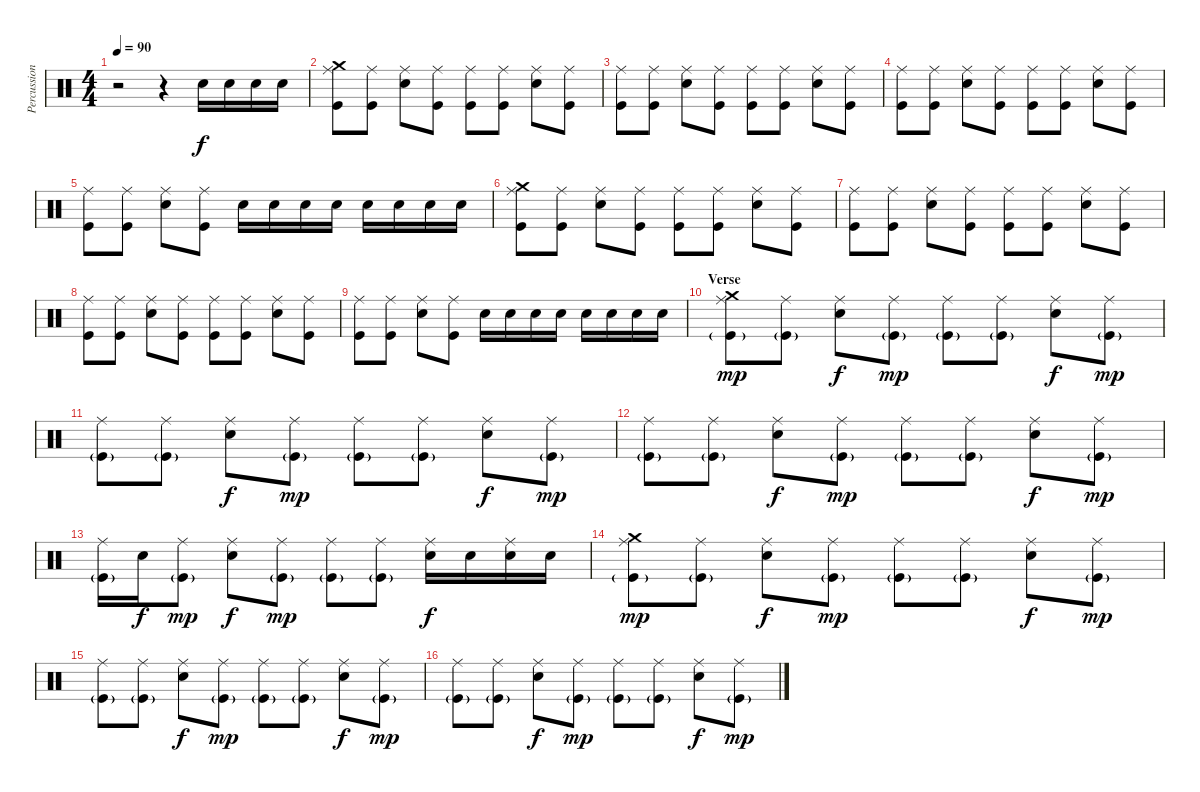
\track ("Percussions" "Percussion") {instrument percussion}
\staff {score}
\articulation defaults
\ts (4 4)
\tempo 90
\clef neutral
\ks c
r.2{dy f} r.4 "Snare (hit) 2".16 "Snare (hit) 2".16 "Snare (hit) 2".16 "Snare (hit) 2".16 |
("Ride (middle)" "Crash medium (hit)" "Kick (hit)").8 ("Ride (middle)" "Kick (hit)").8 ("Ride (middle)" "Snare (hit) 2").8 ("Ride (middle)" "Kick (hit)").8 ("Ride (middle)" "Kick (hit)").8 ("Ride (middle)" "Kick (hit)").8 ("Ride (middle)" "Snare (hit) 2").8 ("Ride (middle)" "Kick (hit)").8 |
("Ride (middle)" "Kick (hit)").8 ("Ride (middle)" "Kick (hit)").8 ("Ride (middle)" "Snare (hit) 2").8 ("Ride (middle)" "Kick (hit)").8 ("Ride (middle)" "Kick (hit)").8 ("Ride (middle)" "Kick (hit)").8 ("Ride (middle)" "Snare (hit) 2").8 ("Ride (middle)" "Kick (hit)").8 |
("Ride (middle)" "Kick (hit)").8 ("Ride (middle)" "Kick (hit)").8 ("Ride (middle)" "Snare (hit) 2").8 ("Ride (middle)" "Kick (hit)").8 ("Ride (middle)" "Kick (hit)").8 ("Ride (middle)" "Kick (hit)").8 ("Ride (middle)" "Snare (hit) 2").8 ("Ride (middle)" "Kick (hit)").8 |
("Ride (middle)" "Kick (hit)").8 ("Ride (middle)" "Kick (hit)").8 ("Ride (middle)" "Snare (hit) 2").8 ("Ride (middle)" "Kick (hit)").8 "Snare (hit) 2".16 "Snare (hit) 2".16 "Snare (hit) 2".16 "Snare (hit) 2".16 "Snare (hit) 2".16 "Snare (hit) 2".16 "Snare (hit) 2".16 "Snare (hit) 2".16 |
("Ride (middle)" "Crash medium (hit)" "Kick (hit)").8 ("Ride (middle)" "Kick (hit)").8 ("Ride (middle)" "Snare (hit) 2").8 ("Ride (middle)" "Kick (hit)").8 ("Ride (middle)" "Kick (hit)").8 ("Ride (middle)" "Kick (hit)").8 ("Ride (middle)" "Snare (hit) 2").8 ("Ride (middle)" "Kick (hit)").8 |
("Ride (middle)" "Kick (hit)").8 ("Ride (middle)" "Kick (hit)").8 ("Ride (middle)" "Snare (hit) 2").8 ("Ride (middle)" "Kick (hit)").8 ("Ride (middle)" "Kick (hit)").8 ("Ride (middle)" "Kick (hit)").8 ("Ride (middle)" "Snare (hit) 2").8 ("Ride (middle)" "Kick (hit)").8 |
("Ride (middle)" "Kick (hit)").8 ("Ride (middle)" "Kick (hit)").8 ("Ride (middle)" "Snare (hit) 2").8 ("Ride (middle)" "Kick (hit)").8 ("Ride (middle)" "Kick (hit)").8 ("Ride (middle)" "Kick (hit)").8 ("Ride (middle)" "Snare (hit) 2").8 ("Ride (middle)" "Kick (hit)").8 |
("Ride (middle)" "Kick (hit)").8 ("Ride (middle)" "Kick (hit)").8 ("Ride (middle)" "Snare (hit) 2").8 ("Ride (middle)" "Kick (hit)").8 "Snare (hit) 2".16 "Snare (hit) 2".16 "Snare (hit) 2".16 "Snare (hit) 2".16 "Snare (hit) 2".16 "Snare (hit) 2".16 "Snare (hit) 2".16 "Snare (hit) 2".16 |
\section ("" "Verse")
("Ride (middle)" "Crash medium (hit)" "Kick (hit)"{g}).8{dy mp} ("Ride (middle)" "Kick (hit)"{g}).8 ("Ride (middle)" "Snare (hit) 2").8{dy f} ("Ride (middle)" "Kick (hit)"{g}).8{dy mp} ("Ride (middle)" "Kick (hit)"{g}).8 ("Ride (middle)" "Kick (hit)"{g}).8 ("Ride (middle)" "Snare (hit) 2").8{dy f} ("Ride (middle)" "Kick (hit)"{g}).8{dy mp} |
("Ride (middle)" "Kick (hit)"{g}).8 ("Ride (middle)" "Kick (hit)"{g}).8 ("Ride (middle)" "Snare (hit) 2").8{dy f} ("Ride (middle)" "Kick (hit)"{g}).8{dy mp} ("Ride (middle)" "Kick (hit)"{g}).8 ("Ride (middle)" "Kick (hit)"{g}).8 ("Ride (middle)" "Snare (hit) 2").8{dy f} ("Ride (middle)" "Kick (hit)"{g}).8{dy mp} |
("Ride (middle)" "Kick (hit)"{g}).8 ("Ride (middle)" "Kick (hit)"{g}).8 ("Ride (middle)" "Snare (hit) 2").8{dy f} ("Ride (middle)" "Kick (hit)"{g}).8{dy mp} ("Ride (middle)" "Kick (hit)"{g}).8 ("Ride (middle)" "Kick (hit)"{g}).8 ("Ride (middle)" "Snare (hit) 2").8{dy f} ("Ride (middle)" "Kick (hit)"{g}).8{dy mp} |
("Ride (middle)" "Kick (hit)"{g}).16 "Snare (hit) 2".16{dy f} ("Ride (middle)" "Kick (hit)"{g}).8{dy mp} ("Ride (middle)" "Snare (hit) 2").8{dy f} ("Ride (middle)" "Kick (hit)"{g}).8{dy mp} ("Ride (middle)" "Kick (hit)"{g}).8 ("Ride (middle)" "Kick (hit)"{g}).8 ("Ride (middle)" "Snare (hit) 2").16{dy f} "Snare (hit) 2".16 ("Ride (middle)" "Snare (hit) 2").16 "Snare (hit) 2".16 |
("Ride (middle)" "Crash medium (hit)" "Kick (hit)"{g}).8{dy mp} ("Ride (middle)" "Kick (hit)"{g}).8 ("Ride (middle)" "Snare (hit) 2").8{dy f} ("Ride (middle)" "Kick (hit)"{g}).8{dy mp} ("Ride (middle)" "Kick (hit)"{g}).8 ("Ride (middle)" "Kick (hit)"{g}).8 ("Ride (middle)" "Snare (hit) 2").8{dy f} ("Ride (middle)" "Kick (hit)"{g}).8{dy mp} |
("Ride (middle)" "Kick (hit)"{g}).8 ("Ride (middle)" "Kick (hit)"{g}).8 ("Ride (middle)" "Snare (hit) 2").8{dy f} ("Ride (middle)" "Kick (hit)"{g}).8{dy mp} ("Ride (middle)" "Kick (hit)"{g}).8 ("Ride (middle)" "Kick (hit)"{g}).8 ("Ride (middle)" "Snare (hit) 2").8{dy f} ("Ride (middle)" "Kick (hit)"{g}).8{dy mp} |
("Ride (middle)" "Kick (hit)"{g}).8 ("Ride (middle)" "Kick (hit)"{g}).8 ("Ride (middle)" "Snare (hit) 2").8{dy f} ("Ride (middle)" "Kick (hit)"{g}).8{dy mp} ("Ride (middle)" "Kick (hit)"{g}).8 ("Ride (middle)" "Kick (hit)"{g}).8 ("Ride (middle)" "Snare (hit) 2").8{dy f} ("Ride (middle)" "Kick (hit)"{g}).8{dy mp}
